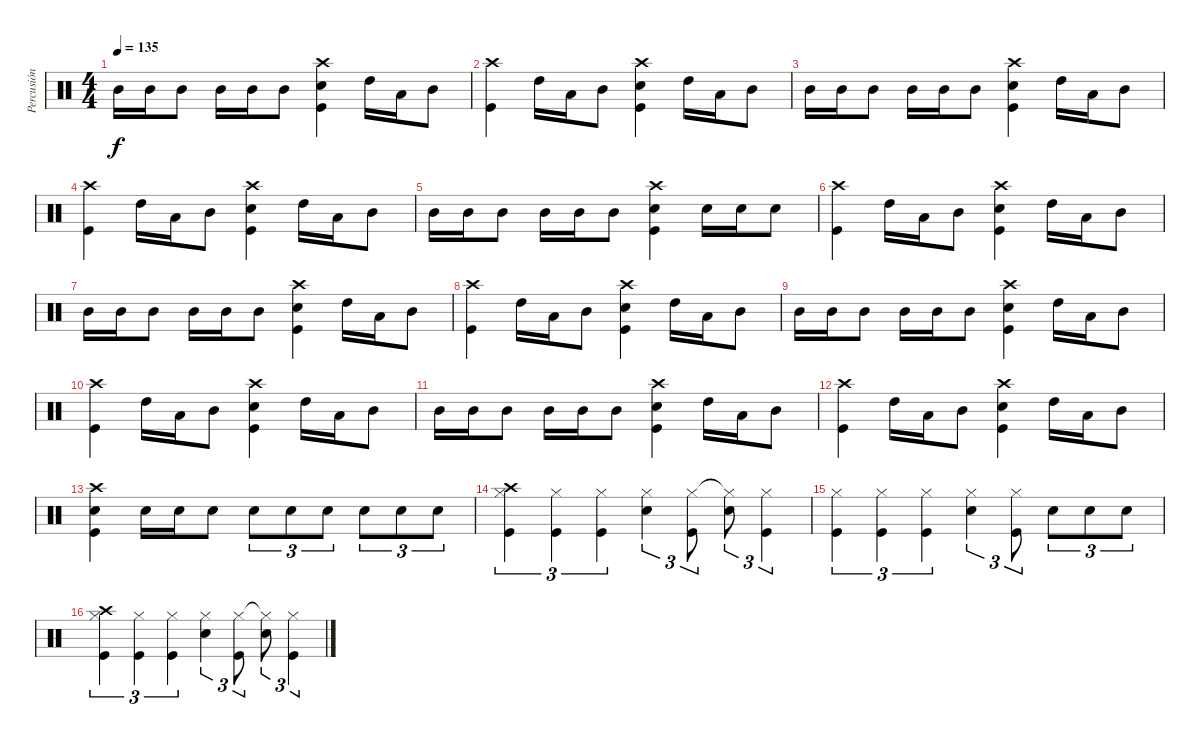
\track ("Percusión" "Percusión") {instrument percussion}
\staff {score}
\articulation defaults
\ts (4 4)
\tempo 135
\clef neutral
\ks c "Mid Tom (hit)".16{dy f} "Mid Tom (hit)".16 "Mid Tom (hit)".8 "Mid Tom (hit)".16 "Mid Tom (hit)".16 "Mid Tom (hit)".8
("Crash high (hit)" "Kick (hit)" "Electric Snare (hit)").4 "High Tom (hit)".16 "Low Floor Tom (hit)".16 "Mid Tom (hit)".8 |
("Crash high (hit)" "Kick (hit)").4 "High Tom (hit)".16 "Low Floor Tom (hit)".16 "Mid Tom (hit)".8 ("Crash high (hit)" "Kick (hit)" "Electric Snare (hit)").4 "High Tom (hit)".16 "Low Floor Tom (hit)".16 "Mid Tom (hit)".8 |
"Mid Tom (hit)".16 "Mid Tom (hit)".16 "Mid Tom (hit)".8 "Mid Tom (hit)".16 "Mid Tom (hit)".16 "Mid Tom (hit)".8 ("Crash high (hit)" "Kick (hit)" "Electric Snare (hit)").4 "High Tom (hit)".16 "Low Floor Tom (hit)".16 "Mid Tom (hit)".8 |
("Crash high (hit)" "Kick (hit)").4 "High Tom (hit)".16 "Low Floor Tom (hit)".16 "Mid Tom (hit)".8 ("Crash high (hit)" "Kick (hit)" "Electric Snare (hit)").4 "High Tom (hit)".16 "Low Floor Tom (hit)".16 "Mid Tom (hit)".8 |
"Mid Tom (hit)".16 "Mid Tom (hit)".16 "Mid Tom (hit)".8 "Mid Tom (hit)".16 "Mid Tom (hit)".16 "Mid Tom (hit)".8 ("Crash high (hit)" "Kick (hit)" "Electric Snare (hit)").4 "Electric Snare (hit)".16 "Electric Snare (hit)".16 "Electric Snare (hit)".8 |
("Crash high (hit)" "Kick (hit)").4 "High Tom (hit)".16 "Low Floor Tom (hit)".16 "Mid Tom (hit)".8 ("Crash high (hit)" "Kick (hit)" "Electric Snare (hit)").4 "High Tom (hit)".16 "Low Floor Tom (hit)".16 "Mid Tom (hit)".8 |
"Mid Tom (hit)".16 "Mid Tom (hit)".16 "Mid Tom (hit)".8 "Mid Tom (hit)".16 "Mid Tom (hit)".16 "Mid Tom (hit)".8 ("Crash high (hit)" "Kick (hit)" "Electric Snare (hit)").4 "High Tom (hit)".16 "Low Floor Tom (hit)".16 "Mid Tom (hit)".8 |
("Crash high (hit)" "Kick (hit)").4 "High Tom (hit)".16 "Low Floor Tom (hit)".16 "Mid Tom (hit)".8 ("Crash high (hit)" "Kick (hit)" "Electric Snare (hit)").4 "High Tom (hit)".16 "Low Floor Tom (hit)".16 "Mid Tom (hit)".8 |
"Mid Tom (hit)".16 "Mid Tom (hit)".16 "Mid Tom (hit)".8 "Mid Tom (hit)".16 "Mid Tom (hit)".16 "Mid Tom (hit)".8 ("Crash high (hit)" "Kick (hit)" "Electric Snare (hit)").4 "High Tom (hit)".16 "Low Floor Tom (hit)".16 "Mid Tom (hit)".8 |
("Crash high (hit)" "Kick (hit)").4 "High Tom (hit)".16 "Low Floor Tom (hit)".16 "Mid Tom (hit)".8 ("Crash high (hit)" "Kick (hit)" "Electric Snare (hit)").4 "High Tom (hit)".16 "Low Floor Tom (hit)".16 "Mid Tom (hit)".8 |
"Mid Tom (hit)".16 "Mid Tom (hit)".16 "Mid Tom (hit)".8 "Mid Tom (hit)".16 "Mid Tom (hit)".16 "Mid Tom (hit)".8 ("Crash high (hit)" "Kick (hit)" "Electric Snare (hit)").4 "High Tom (hit)".16 "Low Floor Tom (hit)".16 "Mid Tom (hit)".8 |
("Crash high (hit)" "Kick (hit)").4 "High Tom (hit)".16 "Low Floor Tom (hit)".16 "Mid Tom (hit)".8 ("Crash high (hit)" "Kick (hit)" "Electric Snare (hit)").4 "High Tom (hit)".16 "Low Floor Tom (hit)".16 "Mid Tom (hit)".8 |
("Crash high (hit)" "Kick (hit)" "Electric Snare (hit)").4 "Electric Snare (hit)".16 "Electric Snare (hit)".16 "Electric Snare (hit)".8 "Electric Snare (hit)".8{tu (3 2)} "Electric Snare (hit)".8{tu (3 2)} "Electric Snare (hit)".8{tu (3 2)} "Electric Snare (hit)".8{tu (3 2)} "Electric Snare (hit)".8{tu (3 2)} "Electric Snare (hit)".8{tu (3 2)} |
("Hi-Hat (closed)" "Crash high (hit)" "Kick (hit)").4{tu (3 2)} ("Hi-Hat (closed)" "Kick (hit)").4{tu (3 2)} ("Hi-Hat (closed)" "Kick (hit)").4{tu (3 2)} ("Hi-Hat (closed)" "Electric Snare (hit)").4{tu (3 2)} ("Hi-Hat (closed)" "Kick (hit)").8{tu (3 2)} ("Hi-Hat (closed)"{t} "Electric Snare (hit)").8{tu (3 2)} ("Hi-Hat (closed)" "Kick (hit)").4{tu (3 2)} |
("Hi-Hat (closed)" "Kick (hit)").4{tu (3 2)} ("Hi-Hat (closed)" "Kick (hit)").4{tu (3 2)} ("Hi-Hat (closed)" "Kick (hit)").4{tu (3 2)} ("Hi-Hat (closed)" "Electric Snare (hit)").4{tu (3 2)} ("Hi-Hat (closed)" "Kick (hit)").8{tu (3 2)} "Electric Snare (hit)".8{tu (3 2)} "Electric Snare (hit)".8{tu (3 2)} "Electric Snare (hit)".8{tu (3 2)} |
("Hi-Hat (closed)" "Crash high (hit)" "Kick (hit)").4{tu (3 2)} ("Hi-Hat (closed)" "Kick (hit)").4{tu (3 2)} ("Hi-Hat (closed)" "Kick (hit)").4{tu (3 2)} ("Hi-Hat (closed)" "Electric Snare (hit)").4{tu (3 2)} ("Hi-Hat (closed)" "Kick (hit)").8{tu (3 2)} ("Hi-Hat (closed)"{t} "Electric Snare (hit)").8{tu (3 2)} ("Hi-Hat (closed)" "Kick (hit)").4{tu (3 2)}
